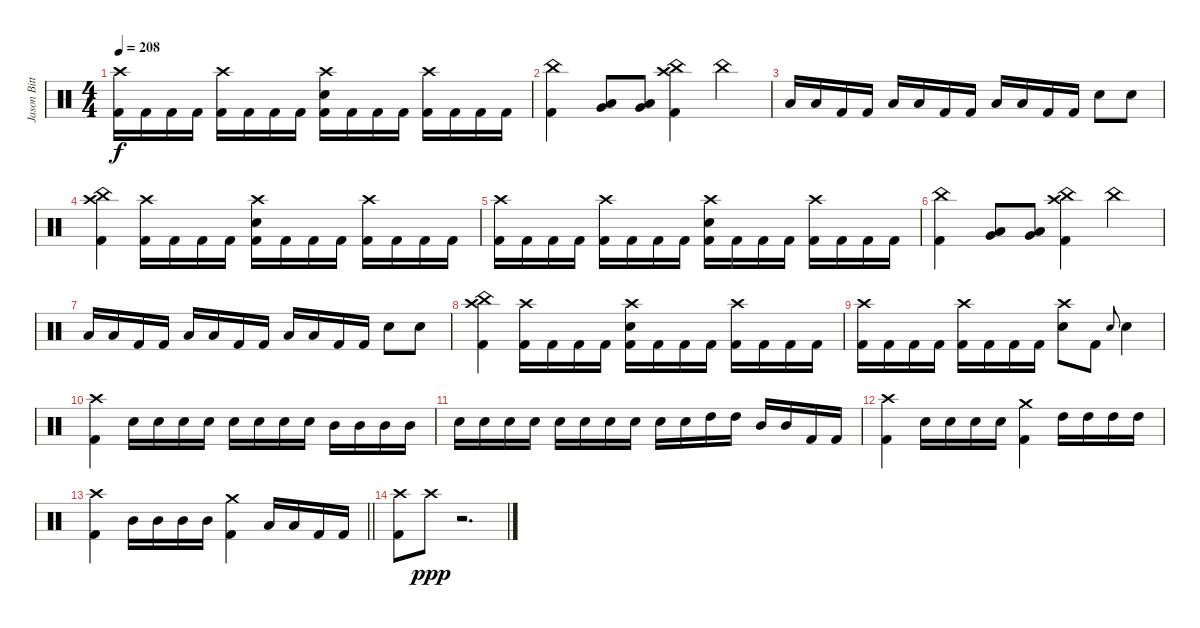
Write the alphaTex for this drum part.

\track ("Jason Bittner" "Jason Bitt") {instrument percussion}
\staff {score}
\articulation defaults
\ts (4 4)
\tempo 208
\clef neutral
\ks c
("Crash high (hit)" "Kick (hit) 2").16{dy f} "Kick (hit) 2".16 "Kick (hit) 2".16 "Kick (hit) 2".16 ("Crash high (hit)" "Kick (hit) 2").16 "Kick (hit) 2".16 "Kick (hit) 2".16 "Kick (hit) 2".16 ("Crash high (hit)" "Electric Snare (hit)" "Kick (hit) 2").16 "Kick (hit) 2".16 "Kick (hit) 2".16 "Kick (hit) 2".16 ("Crash high (hit)" "Kick (hit) 2").16 "Kick (hit) 2".16 "Kick (hit) 2".16 "Kick (hit) 2".16 |
("China (hit)" "Kick (hit) 2").4 ("Very Low Tom (hit)" "Low Floor Tom (hit)").8 ("Very Low Tom (hit)" "Low Floor Tom (hit)").8 ("China (hit)" "Crash high (hit)" "Kick (hit) 2").4 "China (hit)".4 |
"Low Tom (hit)".16 "Low Tom (hit)".16 "Kick (hit) 2".16 "Kick (hit) 2".16 "Low Tom (hit)".16 "Low Tom (hit)".16 "Kick (hit) 2".16 "Kick (hit) 2".16 "Low Tom (hit)".16 "Low Tom (hit)".16 "Kick (hit) 2".16 "Kick (hit) 2".16 "Electric Snare (hit)".8 "Electric Snare (hit)".8 |
("China (hit)" "Crash high (hit)" "Kick (hit) 2").4 ("Crash high (hit)" "Kick (hit) 2").16 "Kick (hit) 2".16 "Kick (hit) 2".16 "Kick (hit) 2".16 ("Crash high (hit)" "Electric Snare (hit)" "Kick (hit) 2").16 "Kick (hit) 2".16 "Kick (hit) 2".16 "Kick (hit) 2".16 ("Crash high (hit)" "Kick (hit) 2").16 "Kick (hit) 2".16 "Kick (hit) 2".16 "Kick (hit) 2".16 |
("Crash high (hit)" "Kick (hit) 2").16 "Kick (hit) 2".16 "Kick (hit) 2".16 "Kick (hit) 2".16 ("Crash high (hit)" "Kick (hit) 2").16 "Kick (hit) 2".16 "Kick (hit) 2".16 "Kick (hit) 2".16 ("Crash high (hit)" "Electric Snare (hit)" "Kick (hit) 2").16 "Kick (hit) 2".16 "Kick (hit) 2".16 "Kick (hit) 2".16 ("Crash high (hit)" "Kick (hit) 2").16 "Kick (hit) 2".16 "Kick (hit) 2".16 "Kick (hit) 2".16 |
("China (hit)" "Kick (hit) 2").4 ("Very Low Tom (hit)" "Low Floor Tom (hit)").8 ("Very Low Tom (hit)" "Low Floor Tom (hit)").8 ("China (hit)" "Crash high (hit)" "Kick (hit) 2").4 "China (hit)".4 |
"Low Tom (hit)".16 "Low Tom (hit)".16 "Kick (hit) 2".16 "Kick (hit) 2".16 "Low Tom (hit)".16 "Low Tom (hit)".16 "Kick (hit) 2".16 "Kick (hit) 2".16 "Low Tom (hit)".16 "Low Tom (hit)".16 "Kick (hit) 2".16 "Kick (hit) 2".16 "Electric Snare (hit)".8 "Electric Snare (hit)".8 |
("China (hit)" "Crash high (hit)" "Kick (hit) 2").4 ("Crash high (hit)" "Kick (hit) 2").16 "Kick (hit) 2".16 "Kick (hit) 2".16 "Kick (hit) 2".16 ("Crash high (hit)" "Electric Snare (hit)" "Kick (hit) 2").16 "Kick (hit) 2".16 "Kick (hit) 2".16 "Kick (hit) 2".16 ("Crash high (hit)" "Kick (hit) 2").16 "Kick (hit) 2".16 "Kick (hit) 2".16 "Kick (hit) 2".16 |
("Crash high (hit)" "Kick (hit) 2").16 "Kick (hit) 2".16 "Kick (hit) 2".16 "Kick (hit) 2".16 ("Crash high (hit)" "Kick (hit) 2").16 "Kick (hit) 2".16 "Kick (hit) 2".16 "Kick (hit) 2".16 ("Crash high (hit)" "Electric Snare (hit)").8 "Kick (hit) 2".8 "Electric Snare (hit)".8{gr onbeat} "Electric Snare (hit)".4 |
("Crash high (hit)" "Kick (hit) 2").4 "Electric Snare (hit)".16 "Electric Snare (hit)".16 "Electric Snare (hit)".16 "Electric Snare (hit)".16 "Electric Snare (hit)".16 "Electric Snare (hit)".16 "Electric Snare (hit)".16 "Electric Snare (hit)".16 "Mid Tom (hit)".16 "Mid Tom (hit)".16 "Mid Tom (hit)".16 "Mid Tom (hit)".16 |
"Electric Snare (hit)".16 "Electric Snare (hit)".16 "Electric Snare (hit)".16 "Electric Snare (hit)".16 "Electric Snare (hit)".16 "Electric Snare (hit)".16 "Electric Snare (hit)".16 "Electric Snare (hit)".16 "Electric Snare (hit)".16 "Electric Snare (hit)".16 "High Tom (hit)".16 "High Tom (hit)".16 "Mid Tom (hit)".16 "Mid Tom (hit)".16 "Kick (hit) 2".16 "Kick (hit) 2".16 |
("Crash high (hit)" "Kick (hit) 2").4 "Electric Snare (hit)".16 "Electric Snare (hit)".16 "Electric Snare (hit)".16 "Electric Snare (hit)".16 ("Crash medium (hit)" "Kick (hit) 2").4 "High Tom (hit)".16 "High Tom (hit)".16 "High Tom (hit)".16 "High Tom (hit)".16 |
\barLineRight lightlight
("Crash high (hit)" "Kick (hit) 2").4 "Mid Tom (hit)".16 "Mid Tom (hit)".16 "Mid Tom (hit)".16 "Mid Tom (hit)".16 ("Crash medium (hit)" "Kick (hit) 2").4 "Low Tom (hit)".16 "Low Tom (hit)".16 "Kick (hit) 2".16 "Kick (hit) 2".16 |
("Crash high (hit)" "Kick (hit) 2").8 "Crash high (hit)".8{dy ppp} r.2{d}
